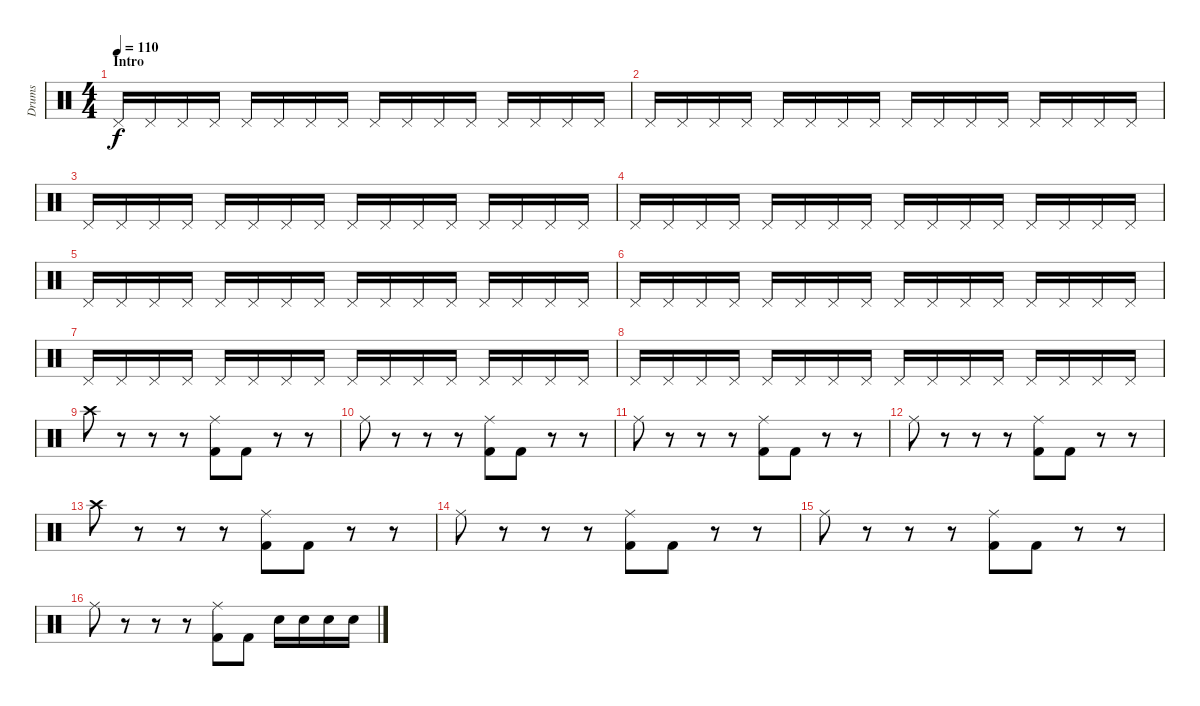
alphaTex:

\track ("Drums" "Drums") {instrument percussion}
\staff {score}
\articulation defaults
\ts (4 4)
\section ("" "Intro")
\tempo 110
\clef neutral
\ks c "Pedal Hi-Hat (hit)".16{dy f volume 8} "Pedal Hi-Hat (hit)".16 "Pedal Hi-Hat (hit)".16 "Pedal Hi-Hat (hit)".16 "Pedal Hi-Hat (hit)".16 "Pedal Hi-Hat (hit)".16 "Pedal Hi-Hat (hit)".16 "Pedal Hi-Hat (hit)".16 "Pedal Hi-Hat (hit)".16 "Pedal Hi-Hat (hit)".16 "Pedal Hi-Hat (hit)".16 "Pedal Hi-Hat (hit)".16 "Pedal Hi-Hat (hit)".16 "Pedal Hi-Hat (hit)".16 "Pedal Hi-Hat (hit)".16 "Pedal Hi-Hat (hit)".16
|
"Pedal Hi-Hat (hit)".16 "Pedal Hi-Hat (hit)".16 "Pedal Hi-Hat (hit)".16 "Pedal Hi-Hat (hit)".16 "Pedal Hi-Hat (hit)".16 "Pedal Hi-Hat (hit)".16 "Pedal Hi-Hat (hit)".16 "Pedal Hi-Hat (hit)".16 "Pedal Hi-Hat (hit)".16 "Pedal Hi-Hat (hit)".16 "Pedal Hi-Hat (hit)".16 "Pedal Hi-Hat (hit)".16 "Pedal Hi-Hat (hit)".16 "Pedal Hi-Hat (hit)".16 "Pedal Hi-Hat (hit)".16 "Pedal Hi-Hat (hit)".16 |
"Pedal Hi-Hat (hit)".16{volume 10} "Pedal Hi-Hat (hit)".16 "Pedal Hi-Hat (hit)".16 "Pedal Hi-Hat (hit)".16 "Pedal Hi-Hat (hit)".16 "Pedal Hi-Hat (hit)".16 "Pedal Hi-Hat (hit)".16 "Pedal Hi-Hat (hit)".16 "Pedal Hi-Hat (hit)".16 "Pedal Hi-Hat (hit)".16 "Pedal Hi-Hat (hit)".16 "Pedal Hi-Hat (hit)".16 "Pedal Hi-Hat (hit)".16 "Pedal Hi-Hat (hit)".16 "Pedal Hi-Hat (hit)".16 "Pedal Hi-Hat (hit)".16 |
"Pedal Hi-Hat (hit)".16 "Pedal Hi-Hat (hit)".16 "Pedal Hi-Hat (hit)".16 "Pedal Hi-Hat (hit)".16 "Pedal Hi-Hat (hit)".16 "Pedal Hi-Hat (hit)".16 "Pedal Hi-Hat (hit)".16 "Pedal Hi-Hat (hit)".16 "Pedal Hi-Hat (hit)".16 "Pedal Hi-Hat (hit)".16 "Pedal Hi-Hat (hit)".16 "Pedal Hi-Hat (hit)".16 "Pedal Hi-Hat (hit)".16 "Pedal Hi-Hat (hit)".16 "Pedal Hi-Hat (hit)".16 "Pedal Hi-Hat (hit)".16 |
"Pedal Hi-Hat (hit)".16{volume 12} "Pedal Hi-Hat (hit)".16 "Pedal Hi-Hat (hit)".16 "Pedal Hi-Hat (hit)".16 "Pedal Hi-Hat (hit)".16 "Pedal Hi-Hat (hit)".16 "Pedal Hi-Hat (hit)".16 "Pedal Hi-Hat (hit)".16 "Pedal Hi-Hat (hit)".16 "Pedal Hi-Hat (hit)".16 "Pedal Hi-Hat (hit)".16 "Pedal Hi-Hat (hit)".16 "Pedal Hi-Hat (hit)".16 "Pedal Hi-Hat (hit)".16 "Pedal Hi-Hat (hit)".16 "Pedal Hi-Hat (hit)".16 |
"Pedal Hi-Hat (hit)".16 "Pedal Hi-Hat (hit)".16 "Pedal Hi-Hat (hit)".16 "Pedal Hi-Hat (hit)".16 "Pedal Hi-Hat (hit)".16 "Pedal Hi-Hat (hit)".16 "Pedal Hi-Hat (hit)".16 "Pedal Hi-Hat (hit)".16 "Pedal Hi-Hat (hit)".16 "Pedal Hi-Hat (hit)".16 "Pedal Hi-Hat (hit)".16 "Pedal Hi-Hat (hit)".16 "Pedal Hi-Hat (hit)".16 "Pedal Hi-Hat (hit)".16 "Pedal Hi-Hat (hit)".16 "Pedal Hi-Hat (hit)".16 |
"Pedal Hi-Hat (hit)".16{volume 14} "Pedal Hi-Hat (hit)".16 "Pedal Hi-Hat (hit)".16 "Pedal Hi-Hat (hit)".16 "Pedal Hi-Hat (hit)".16 "Pedal Hi-Hat (hit)".16 "Pedal Hi-Hat (hit)".16 "Pedal Hi-Hat (hit)".16 "Pedal Hi-Hat (hit)".16 "Pedal Hi-Hat (hit)".16 "Pedal Hi-Hat (hit)".16 "Pedal Hi-Hat (hit)".16 "Pedal Hi-Hat (hit)".16 "Pedal Hi-Hat (hit)".16 "Pedal Hi-Hat (hit)".16 "Pedal Hi-Hat (hit)".16 |
"Pedal Hi-Hat (hit)".16{volume 16} "Pedal Hi-Hat (hit)".16 "Pedal Hi-Hat (hit)".16 "Pedal Hi-Hat (hit)".16 "Pedal Hi-Hat (hit)".16 "Pedal Hi-Hat (hit)".16 "Pedal Hi-Hat (hit)".16 "Pedal Hi-Hat (hit)".16 "Pedal Hi-Hat (hit)".16 "Pedal Hi-Hat (hit)".16 "Pedal Hi-Hat (hit)".16 "Pedal Hi-Hat (hit)".16 "Pedal Hi-Hat (hit)".16 "Pedal Hi-Hat (hit)".16 "Pedal Hi-Hat (hit)".16 "Pedal Hi-Hat (hit)".16 |
"Crash high (hit)".8 r.8 r.8 r.8 ("Ride (middle)" "Kick (hit) 2").8 "Kick (hit) 2".8 r.8 r.8 |
"Ride (middle)".8 r.8 r.8 r.8 ("Ride (middle)" "Kick (hit) 2").8 "Kick (hit) 2".8 r.8 r.8 |
"Ride (middle)".8 r.8 r.8 r.8 ("Ride (middle)" "Kick (hit) 2").8 "Kick (hit) 2".8 r.8 r.8 |
"Ride (middle)".8 r.8 r.8 r.8 ("Ride (middle)" "Kick (hit) 2").8 "Kick (hit) 2".8 r.8 r.8 |
"Crash high (hit)".8 r.8 r.8 r.8 ("Ride (middle)" "Kick (hit) 2").8 "Kick (hit) 2".8 r.8 r.8 |
"Ride (middle)".8 r.8 r.8 r.8 ("Ride (middle)" "Kick (hit) 2").8 "Kick (hit) 2".8 r.8 r.8 |
"Ride (middle)".8 r.8 r.8 r.8 ("Ride (middle)" "Kick (hit) 2").8 "Kick (hit) 2".8 r.8 r.8 |
"Ride (middle)".8 r.8 r.8 r.8 ("Ride (middle)" "Kick (hit) 2").8 "Kick (hit) 2".8 "Snare (hit) 2".16 "Snare (hit) 2".16 "Snare (hit) 2".16 "Snare (hit) 2".16
